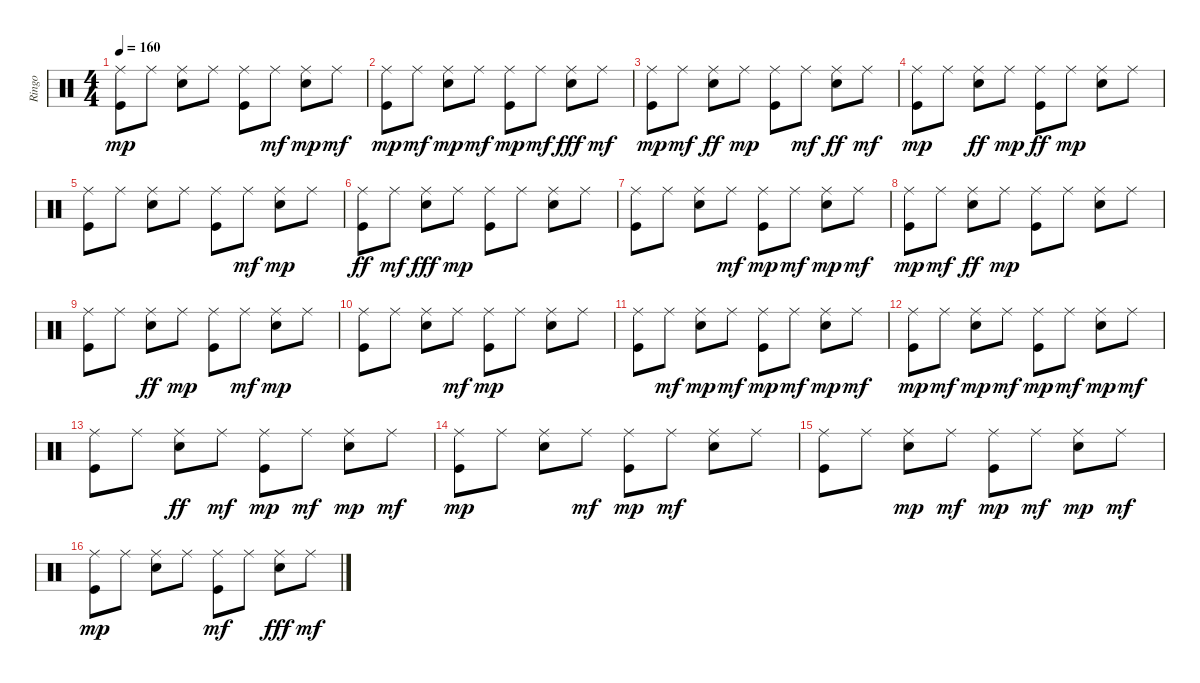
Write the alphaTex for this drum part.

\track ("Ringo" "Ringo") {instrument percussion}
\staff {score}
\articulation defaults
\ts (4 4)
\tempo 160
\clef neutral
\ks c
("Kick (hit)" "Ride (middle)").8{dy mp} "Ride (middle)".8 ("Electric Snare (hit)" "Ride (middle)").8 "Ride (middle)".8 ("Ride (middle)" "Kick (hit)").8 "Ride (middle)".8{dy mf} ("Electric Snare (hit)" "Ride (middle)").8{dy mp} "Ride (middle)".8{dy mf} |
("Kick (hit)" "Ride (middle)").8{dy mp} "Ride (middle)".8{dy mf} ("Electric Snare (hit)" "Ride (middle)").8{dy mp} "Ride (middle)".8{dy mf} ("Kick (hit)" "Ride (middle)").8{dy mp} "Ride (middle)".8{dy mf} ("Ride (middle)" "Electric Snare (hit)").8{dy fff} "Ride (middle)".8{dy mf} |
("Ride (middle)" "Kick (hit)").8{dy mp} "Ride (middle)".8{dy mf} ("Ride (middle)" "Electric Snare (hit)").8{dy ff} "Ride (middle)".8{dy mp} ("Kick (hit)" "Ride (middle)").8 "Ride (middle)".8{dy mf} ("Ride (middle)" "Electric Snare (hit)").8{dy ff} "Ride (middle)".8{dy mf} |
("Kick (hit)" "Ride (middle)").8{dy mp} "Ride (middle)".8 ("Ride (middle)" "Electric Snare (hit)").8{dy ff} "Ride (middle)".8{dy mp} ("Ride (middle)" "Kick (hit)").8{dy ff} "Ride (middle)".8{dy mp} ("Electric Snare (hit)" "Ride (middle)").8 "Ride (middle)".8 |
("Kick (hit)" "Ride (middle)").8 "Ride (middle)".8 ("Electric Snare (hit)" "Ride (middle)").8 "Ride (middle)".8 ("Kick (hit)" "Ride (middle)").8 "Ride (middle)".8{dy mf} ("Electric Snare (hit)" "Ride (middle)").8{dy mp} "Ride (middle)".8 |
("Ride (middle)" "Kick (hit)").8{dy ff} "Ride (middle)".8{dy mf} ("Ride (middle)" "Electric Snare (hit)").8{dy fff} "Ride (middle)".8{dy mp} ("Kick (hit)" "Ride (middle)").8 "Ride (middle)".8 ("Electric Snare (hit)" "Ride (middle)").8 "Ride (middle)".8 |
("Kick (hit)" "Ride (middle)").8 "Ride (middle)".8 ("Electric Snare (hit)" "Ride (middle)").8 "Ride (middle)".8{dy mf} ("Kick (hit)" "Ride (middle)").8{dy mp} "Ride (middle)".8{dy mf} ("Electric Snare (hit)" "Ride (middle)").8{dy mp} "Ride (middle)".8{dy mf} |
("Kick (hit)" "Ride (middle)").8{dy mp} "Ride (middle)".8{dy mf} ("Ride (middle)" "Electric Snare (hit)").8{dy ff} "Ride (middle)".8{dy mp} ("Kick (hit)" "Ride (middle)").8 "Ride (middle)".8 ("Electric Snare (hit)" "Ride (middle)").8 "Ride (middle)".8 |
("Kick (hit)" "Ride (middle)").8 "Ride (middle)".8 ("Ride (middle)" "Electric Snare (hit)").8{dy ff} "Ride (middle)".8{dy mp} ("Kick (hit)" "Ride (middle)").8 "Ride (middle)".8{dy mf} ("Electric Snare (hit)" "Ride (middle)").8{dy mp} "Ride (middle)".8 |
("Kick (hit)" "Ride (middle)").8 "Ride (middle)".8 ("Electric Snare (hit)" "Ride (middle)").8 "Ride (middle)".8{dy mf} ("Kick (hit)" "Ride (middle)").8{dy mp} "Ride (middle)".8 ("Electric Snare (hit)" "Ride (middle)").8 "Ride (middle)".8 |
("Kick (hit)" "Ride (middle)").8 "Ride (middle)".8{dy mf} ("Electric Snare (hit)" "Ride (middle)").8{dy mp} "Ride (middle)".8{dy mf} ("Kick (hit)" "Ride (middle)").8{dy mp} "Ride (middle)".8{dy mf} ("Electric Snare (hit)" "Ride (middle)").8{dy mp} "Ride (middle)".8{dy mf} |
("Kick (hit)" "Ride (middle)").8{dy mp} "Ride (middle)".8{dy mf} ("Electric Snare (hit)" "Ride (middle)").8{dy mp} "Ride (middle)".8{dy mf} ("Kick (hit)" "Ride (middle)").8{dy mp} "Ride (middle)".8{dy mf} ("Electric Snare (hit)" "Ride (middle)").8{dy mp} "Ride (middle)".8{dy mf} |
("Kick (hit)" "Ride (middle)").8 "Ride (middle)".8 ("Ride (middle)" "Electric Snare (hit)").8{dy ff} "Ride (middle)".8{dy mf} ("Kick (hit)" "Ride (middle)").8{dy mp} "Ride (middle)".8{dy mf} ("Electric Snare (hit)" "Ride (middle)").8{dy mp} "Ride (middle)".8{dy mf} |
("Kick (hit)" "Ride (middle)").8{dy mp} "Ride (middle)".8 ("Electric Snare (hit)" "Ride (middle)").8 "Ride (middle)".8{dy mf} ("Ride (middle)" "Kick (hit)").8{dy mp} "Ride (middle)".8{dy mf} ("Electric Snare (hit)" "Ride (middle)").8 "Ride (middle)".8 |
("Kick (hit)" "Ride (middle)").8 "Ride (middle)".8 ("Electric Snare (hit)" "Ride (middle)").8{dy mp} "Ride (middle)".8{dy mf} ("Kick (hit)" "Ride (middle)").8{dy mp} "Ride (middle)".8{dy mf} ("Electric Snare (hit)" "Ride (middle)").8{dy mp} "Ride (middle)".8{dy mf} |
("Kick (hit)" "Ride (middle)").8{dy mp} "Ride (middle)".8 ("Electric Snare (hit)" "Ride (middle)").8 "Ride (middle)".8 ("Ride (middle)" "Kick (hit)").8{dy mf} "Ride (middle)".8 ("Ride (middle)" "Electric Snare (hit)").8{dy fff} "Ride (middle)".8{dy mf}
